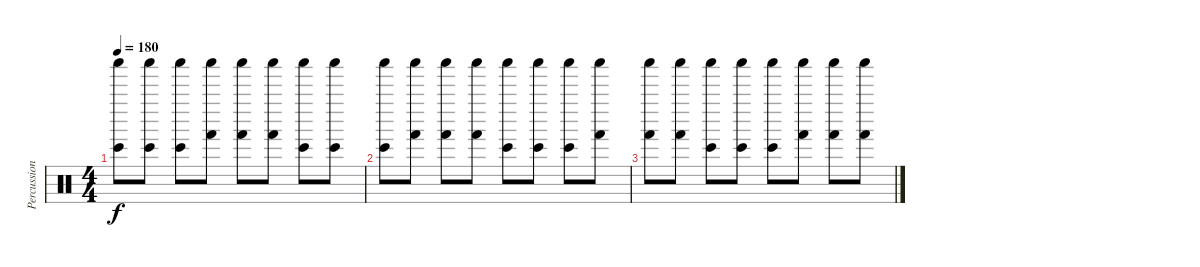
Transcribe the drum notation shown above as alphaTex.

\track ("Percussion" "Percussion") {instrument percussion}
\staff {score}
\articulation defaults
\ts (4 4)
\tempo 180
\clef neutral
\ks c
("Shaker (hit)" "Bongo High (hit)").8{dy f} ("Shaker (hit)" "Bongo High (hit)").8 ("Shaker (hit)" "Bongo High (hit)").8 ("Shaker (hit)" "Hand (hit)").8 ("Shaker (hit)" "Hand (hit)").8 ("Shaker (hit)" "Hand (hit)").8 ("Shaker (hit)" "Bongo High (hit)").8 ("Shaker (hit)" "Bongo High (hit)").8 |
("Shaker (hit)" "Bongo High (hit)").8 ("Shaker (hit)" "Hand (hit)").8 ("Shaker (hit)" "Hand (hit)").8 ("Shaker (hit)" "Hand (hit)").8 ("Shaker (hit)" "Bongo High (hit)").8 ("Shaker (hit)" "Bongo High (hit)").8 ("Shaker (hit)" "Bongo High (hit)").8 ("Shaker (hit)" "Hand (hit)").8 |
("Shaker (hit)" "Hand (hit)").8 ("Shaker (hit)" "Hand (hit)").8 ("Shaker (hit)" "Bongo High (hit)").8 ("Shaker (hit)" "Bongo High (hit)").8 ("Shaker (hit)" "Bongo High (hit)").8 ("Shaker (hit)" "Hand (hit)").8 ("Shaker (hit)" "Hand (hit)").8 ("Shaker (hit)" "Hand (hit)").8
